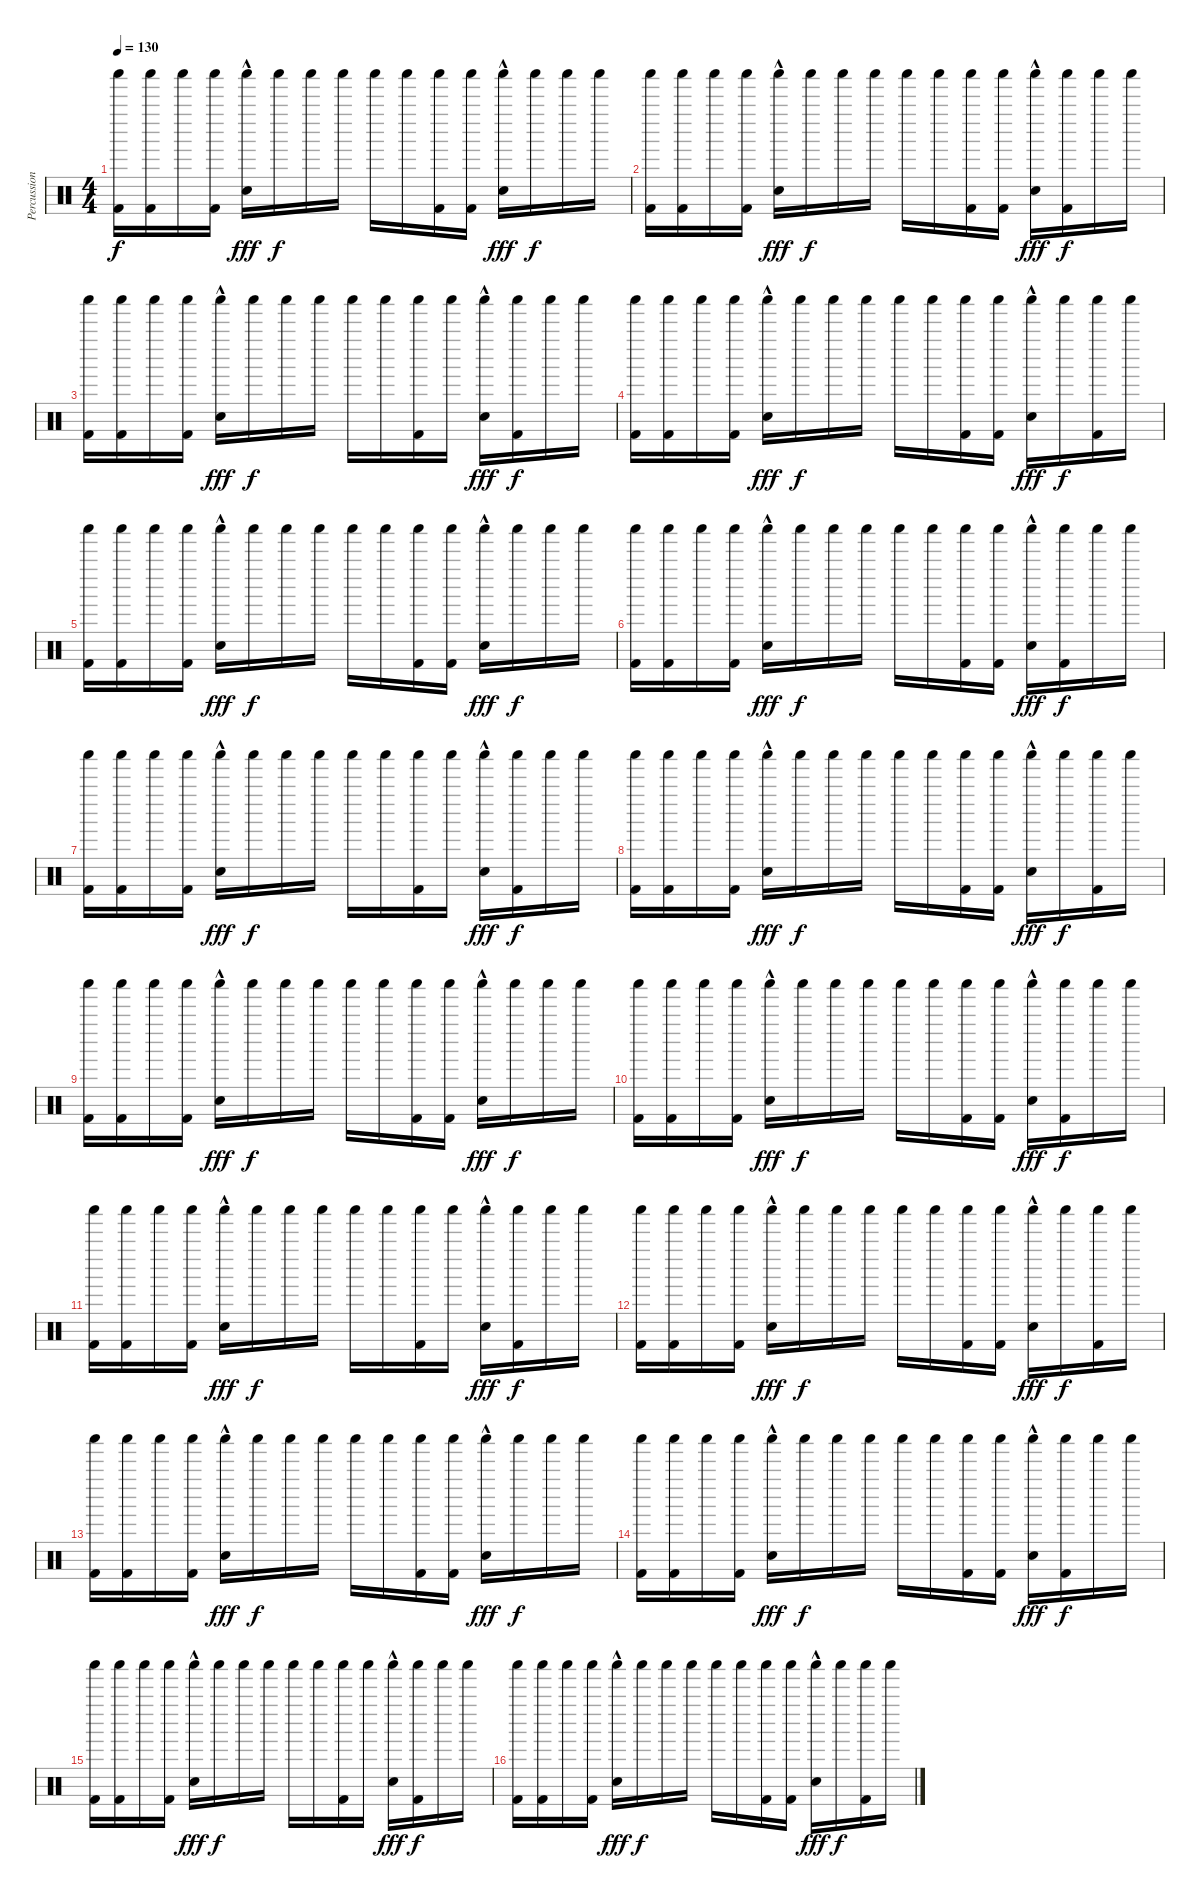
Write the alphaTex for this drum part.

\track ("Percussion" "Percussion") {instrument percussion}
\staff {score}
\articulation defaults
\ts (4 4)
\tempo 130
\clef neutral
\ks c
("Shaker (hit)" "Kick (hit) 2").16{dy f} ("Shaker (hit)" "Kick (hit) 2").16 "Shaker (hit)".16 ("Shaker (hit)" "Kick (hit) 2").16 ("Shaker (hit)" "Snare (hit) 2"{hac}).16{dy fff} "Shaker (hit)".16{dy f} "Shaker (hit)".16 "Shaker (hit)".16 "Shaker (hit)".16 "Shaker (hit)".16 ("Shaker (hit)" "Kick (hit) 2").16 ("Shaker (hit)" "Kick (hit) 2").16 ("Shaker (hit)" "Snare (hit) 2"{hac}).16{dy fff} "Shaker (hit)".16{dy f} "Shaker (hit)".16 "Shaker (hit)".16 |
("Shaker (hit)" "Kick (hit) 2").16 ("Shaker (hit)" "Kick (hit) 2").16 "Shaker (hit)".16 ("Shaker (hit)" "Kick (hit) 2").16 ("Shaker (hit)" "Snare (hit) 2"{hac}).16{dy fff} "Shaker (hit)".16{dy f} "Shaker (hit)".16 "Shaker (hit)".16 "Shaker (hit)".16 "Shaker (hit)".16 ("Shaker (hit)" "Kick (hit) 2").16 ("Shaker (hit)" "Kick (hit) 2").16 ("Shaker (hit)" "Snare (hit) 2"{hac}).16{dy fff} ("Shaker (hit)" "Kick (hit) 2").16{dy f} "Shaker (hit)".16 "Shaker (hit)".16 |
("Shaker (hit)" "Kick (hit) 2").16 ("Shaker (hit)" "Kick (hit) 2").16 "Shaker (hit)".16 ("Shaker (hit)" "Kick (hit) 2").16 ("Shaker (hit)" "Snare (hit) 2"{hac}).16{dy fff} "Shaker (hit)".16{dy f} "Shaker (hit)".16 "Shaker (hit)".16 "Shaker (hit)".16 "Shaker (hit)".16 ("Shaker (hit)" "Kick (hit) 2").16 "Shaker (hit)".16 ("Shaker (hit)" "Snare (hit) 2"{hac}).16{dy fff} ("Shaker (hit)" "Kick (hit) 2").16{dy f} "Shaker (hit)".16 "Shaker (hit)".16 |
("Shaker (hit)" "Kick (hit) 2").16 ("Shaker (hit)" "Kick (hit) 2").16 "Shaker (hit)".16 ("Shaker (hit)" "Kick (hit) 2").16 ("Shaker (hit)" "Snare (hit) 2"{hac}).16{dy fff} "Shaker (hit)".16{dy f} "Shaker (hit)".16 "Shaker (hit)".16 "Shaker (hit)".16 "Shaker (hit)".16 ("Shaker (hit)" "Kick (hit) 2").16 ("Shaker (hit)" "Kick (hit) 2").16 ("Shaker (hit)" "Snare (hit) 2"{hac}).16{dy fff} "Shaker (hit)".16{dy f} ("Shaker (hit)" "Kick (hit) 2").16 "Shaker (hit)".16 |
("Shaker (hit)" "Kick (hit) 2").16 ("Shaker (hit)" "Kick (hit) 2").16 "Shaker (hit)".16 ("Shaker (hit)" "Kick (hit) 2").16 ("Shaker (hit)" "Snare (hit) 2"{hac}).16{dy fff} "Shaker (hit)".16{dy f} "Shaker (hit)".16 "Shaker (hit)".16 "Shaker (hit)".16 "Shaker (hit)".16 ("Shaker (hit)" "Kick (hit) 2").16 ("Shaker (hit)" "Kick (hit) 2").16 ("Shaker (hit)" "Snare (hit) 2"{hac}).16{dy fff} "Shaker (hit)".16{dy f} "Shaker (hit)".16 "Shaker (hit)".16 |
("Shaker (hit)" "Kick (hit) 2").16 ("Shaker (hit)" "Kick (hit) 2").16 "Shaker (hit)".16 ("Shaker (hit)" "Kick (hit) 2").16 ("Shaker (hit)" "Snare (hit) 2"{hac}).16{dy fff} "Shaker (hit)".16{dy f} "Shaker (hit)".16 "Shaker (hit)".16 "Shaker (hit)".16 "Shaker (hit)".16 ("Shaker (hit)" "Kick (hit) 2").16 ("Shaker (hit)" "Kick (hit) 2").16 ("Shaker (hit)" "Snare (hit) 2"{hac}).16{dy fff} ("Shaker (hit)" "Kick (hit) 2").16{dy f} "Shaker (hit)".16 "Shaker (hit)".16 |
("Shaker (hit)" "Kick (hit) 2").16 ("Shaker (hit)" "Kick (hit) 2").16 "Shaker (hit)".16 ("Shaker (hit)" "Kick (hit) 2").16 ("Shaker (hit)" "Snare (hit) 2"{hac}).16{dy fff} "Shaker (hit)".16{dy f} "Shaker (hit)".16 "Shaker (hit)".16 "Shaker (hit)".16 "Shaker (hit)".16 ("Shaker (hit)" "Kick (hit) 2").16 "Shaker (hit)".16 ("Shaker (hit)" "Snare (hit) 2"{hac}).16{dy fff} ("Shaker (hit)" "Kick (hit) 2").16{dy f} "Shaker (hit)".16 "Shaker (hit)".16 |
("Shaker (hit)" "Kick (hit) 2").16 ("Shaker (hit)" "Kick (hit) 2").16 "Shaker (hit)".16 ("Shaker (hit)" "Kick (hit) 2").16 ("Shaker (hit)" "Snare (hit) 2"{hac}).16{dy fff} "Shaker (hit)".16{dy f} "Shaker (hit)".16 "Shaker (hit)".16 "Shaker (hit)".16 "Shaker (hit)".16 ("Shaker (hit)" "Kick (hit) 2").16 ("Shaker (hit)" "Kick (hit) 2").16 ("Shaker (hit)" "Snare (hit) 2"{hac}).16{dy fff} "Shaker (hit)".16{dy f} ("Shaker (hit)" "Kick (hit) 2").16 "Shaker (hit)".16 |
("Shaker (hit)" "Kick (hit) 2").16 ("Shaker (hit)" "Kick (hit) 2").16 "Shaker (hit)".16 ("Shaker (hit)" "Kick (hit) 2").16 ("Shaker (hit)" "Snare (hit) 2"{hac}).16{dy fff} "Shaker (hit)".16{dy f} "Shaker (hit)".16 "Shaker (hit)".16 "Shaker (hit)".16 "Shaker (hit)".16 ("Shaker (hit)" "Kick (hit) 2").16 ("Shaker (hit)" "Kick (hit) 2").16 ("Shaker (hit)" "Snare (hit) 2"{hac}).16{dy fff} "Shaker (hit)".16{dy f} "Shaker (hit)".16 "Shaker (hit)".16 |
("Shaker (hit)" "Kick (hit) 2").16 ("Shaker (hit)" "Kick (hit) 2").16 "Shaker (hit)".16 ("Shaker (hit)" "Kick (hit) 2").16 ("Shaker (hit)" "Snare (hit) 2"{hac}).16{dy fff} "Shaker (hit)".16{dy f} "Shaker (hit)".16 "Shaker (hit)".16 "Shaker (hit)".16 "Shaker (hit)".16 ("Shaker (hit)" "Kick (hit) 2").16 ("Shaker (hit)" "Kick (hit) 2").16 ("Shaker (hit)" "Snare (hit) 2"{hac}).16{dy fff} ("Shaker (hit)" "Kick (hit) 2").16{dy f} "Shaker (hit)".16 "Shaker (hit)".16 |
("Shaker (hit)" "Kick (hit) 2").16 ("Shaker (hit)" "Kick (hit) 2").16 "Shaker (hit)".16 ("Shaker (hit)" "Kick (hit) 2").16 ("Shaker (hit)" "Snare (hit) 2"{hac}).16{dy fff} "Shaker (hit)".16{dy f} "Shaker (hit)".16 "Shaker (hit)".16 "Shaker (hit)".16 "Shaker (hit)".16 ("Shaker (hit)" "Kick (hit) 2").16 "Shaker (hit)".16 ("Shaker (hit)" "Snare (hit) 2"{hac}).16{dy fff} ("Shaker (hit)" "Kick (hit) 2").16{dy f} "Shaker (hit)".16 "Shaker (hit)".16 |
("Shaker (hit)" "Kick (hit) 2").16 ("Shaker (hit)" "Kick (hit) 2").16 "Shaker (hit)".16 ("Shaker (hit)" "Kick (hit) 2").16 ("Shaker (hit)" "Snare (hit) 2"{hac}).16{dy fff} "Shaker (hit)".16{dy f} "Shaker (hit)".16 "Shaker (hit)".16 "Shaker (hit)".16 "Shaker (hit)".16 ("Shaker (hit)" "Kick (hit) 2").16 ("Shaker (hit)" "Kick (hit) 2").16 ("Shaker (hit)" "Snare (hit) 2"{hac}).16{dy fff} "Shaker (hit)".16{dy f} ("Shaker (hit)" "Kick (hit) 2").16 "Shaker (hit)".16 |
("Shaker (hit)" "Kick (hit) 2").16 ("Shaker (hit)" "Kick (hit) 2").16 "Shaker (hit)".16 ("Shaker (hit)" "Kick (hit) 2").16 ("Shaker (hit)" "Snare (hit) 2"{hac}).16{dy fff} "Shaker (hit)".16{dy f} "Shaker (hit)".16 "Shaker (hit)".16 "Shaker (hit)".16 "Shaker (hit)".16 ("Shaker (hit)" "Kick (hit) 2").16 ("Shaker (hit)" "Kick (hit) 2").16 ("Shaker (hit)" "Snare (hit) 2"{hac}).16{dy fff} "Shaker (hit)".16{dy f} "Shaker (hit)".16 "Shaker (hit)".16 |
("Shaker (hit)" "Kick (hit) 2").16 ("Shaker (hit)" "Kick (hit) 2").16 "Shaker (hit)".16 ("Shaker (hit)" "Kick (hit) 2").16 ("Shaker (hit)" "Snare (hit) 2"{hac}).16{dy fff} "Shaker (hit)".16{dy f} "Shaker (hit)".16 "Shaker (hit)".16 "Shaker (hit)".16 "Shaker (hit)".16 ("Shaker (hit)" "Kick (hit) 2").16 ("Shaker (hit)" "Kick (hit) 2").16 ("Shaker (hit)" "Snare (hit) 2"{hac}).16{dy fff} ("Shaker (hit)" "Kick (hit) 2").16{dy f} "Shaker (hit)".16 "Shaker (hit)".16 |
("Shaker (hit)" "Kick (hit) 2").16 ("Shaker (hit)" "Kick (hit) 2").16 "Shaker (hit)".16 ("Shaker (hit)" "Kick (hit) 2").16 ("Shaker (hit)" "Snare (hit) 2"{hac}).16{dy fff} "Shaker (hit)".16{dy f} "Shaker (hit)".16 "Shaker (hit)".16 "Shaker (hit)".16 "Shaker (hit)".16 ("Shaker (hit)" "Kick (hit) 2").16 "Shaker (hit)".16 ("Shaker (hit)" "Snare (hit) 2"{hac}).16{dy fff} ("Shaker (hit)" "Kick (hit) 2").16{dy f} "Shaker (hit)".16 "Shaker (hit)".16 |
("Shaker (hit)" "Kick (hit) 2").16 ("Shaker (hit)" "Kick (hit) 2").16 "Shaker (hit)".16 ("Shaker (hit)" "Kick (hit) 2").16 ("Shaker (hit)" "Snare (hit) 2"{hac}).16{dy fff} "Shaker (hit)".16{dy f} "Shaker (hit)".16 "Shaker (hit)".16 "Shaker (hit)".16 "Shaker (hit)".16 ("Shaker (hit)" "Kick (hit) 2").16 ("Shaker (hit)" "Kick (hit) 2").16 ("Shaker (hit)" "Snare (hit) 2"{hac}).16{dy fff} "Shaker (hit)".16{dy f} ("Shaker (hit)" "Kick (hit) 2").16 "Shaker (hit)".16
